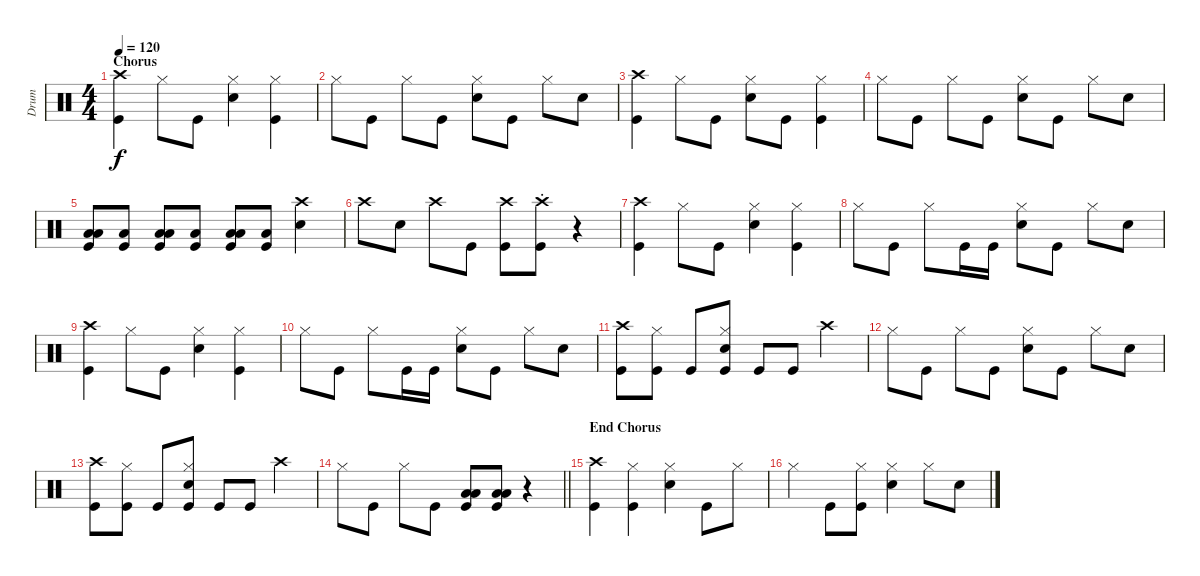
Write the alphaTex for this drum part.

\track ("Drum" "Drum") {instrument percussion}
\staff {score}
\articulation defaults
\ts (4 4)
\section ("" "Chorus")
\tempo 120
\clef neutral
\ks c
("Crash high (hit)" "Kick (hit)").4{dy f} "Hi-Hat (closed)".8 "Kick (hit)".8 ("Hi-Hat (closed)" "Snare (hit) 2").4 ("Hi-Hat (closed)" "Kick (hit)").4 |
"Hi-Hat (closed)".8 "Kick (hit)".8 "Hi-Hat (closed)".8 "Kick (hit)".8 ("Hi-Hat (closed)" "Snare (hit) 2").8 "Kick (hit)".8 "Hi-Hat (closed)".8 "Snare (hit) 2".8 |
("Crash high (hit)" "Kick (hit)").4 "Hi-Hat (closed)".8 "Kick (hit)".8 ("Hi-Hat (closed)" "Snare (hit) 2").8 "Kick (hit)".8 ("Hi-Hat (closed)" "Kick (hit)").4 |
"Hi-Hat (closed)".8 "Kick (hit)".8 "Hi-Hat (closed)".8 "Kick (hit)".8 ("Hi-Hat (closed)" "Snare (hit) 2").8 "Kick (hit)".8 "Hi-Hat (closed)".8 "Snare (hit) 2".8 |
("Low Tom (hit)" "Low Floor Tom (hit)" "Kick (hit)").8 ("Low Tom (hit)" "Kick (hit)").8 ("Low Tom (hit)" "Low Floor Tom (hit)" "Kick (hit)").8 ("Low Tom (hit)" "Kick (hit)").8 ("Low Tom (hit)" "Low Floor Tom (hit)" "Kick (hit)").8 ("Low Tom (hit)" "Kick (hit)").8 ("Crash high (hit)" "Snare (hit) 2").4 |
"Crash high (hit)".8 "Snare (hit) 2".8 "Crash high (hit)".8 "Kick (hit)".8 ("Crash high (hit)" "Kick (hit)").8 ("Crash high (hit)"{st} "Kick (hit)").8 r.4 |
("Crash high (hit)" "Kick (hit)").4 "Hi-Hat (closed)".8 "Kick (hit)".8 ("Hi-Hat (closed)" "Snare (hit) 2").4 ("Hi-Hat (closed)" "Kick (hit)").4 |
"Hi-Hat (closed)".8 "Kick (hit)".8 "Hi-Hat (closed)".8 "Kick (hit)".16 "Kick (hit)".16 ("Hi-Hat (closed)" "Snare (hit) 2").8 "Kick (hit)".8 "Hi-Hat (closed)".8 "Snare (hit) 2".8 |
("Crash high (hit)" "Kick (hit)").4 "Hi-Hat (closed)".8 "Kick (hit)".8 ("Hi-Hat (closed)" "Snare (hit) 2").4 ("Hi-Hat (closed)" "Kick (hit)").4 |
"Hi-Hat (closed)".8 "Kick (hit)".8 "Hi-Hat (closed)".8 "Kick (hit)".16 "Kick (hit)".16 ("Hi-Hat (closed)" "Snare (hit) 2").8 "Kick (hit)".8 "Hi-Hat (closed)".8 "Snare (hit) 2".8 |
("Crash high (hit)" "Kick (hit)").8 ("Hi-Hat (closed)" "Kick (hit)").8 "Kick (hit)".8 ("Hi-Hat (closed)" "Snare (hit) 2" "Kick (hit)").8 "Kick (hit)".8 "Kick (hit)".8 "Crash high (hit)".4 |
"Hi-Hat (closed)".8 "Kick (hit)".8 "Hi-Hat (closed)".8 "Kick (hit)".8 ("Hi-Hat (closed)" "Snare (hit) 2").8 "Kick (hit)".8 "Hi-Hat (closed)".8 "Snare (hit) 2".8 |
("Crash high (hit)" "Kick (hit)").8 ("Hi-Hat (closed)" "Kick (hit)").8 "Kick (hit)".8 ("Hi-Hat (closed)" "Snare (hit) 2" "Kick (hit)").8 "Kick (hit)".8 "Kick (hit)".8 "Crash high (hit)".4 |
\barLineRight lightlight "Hi-Hat (closed)".8 "Kick (hit)".8 "Hi-Hat (closed)".8 "Kick (hit)".8
("Low Tom (hit)" "Low Floor Tom (hit)" "Kick (hit)").8 ("Low Tom (hit)" "Low Floor Tom (hit)" "Kick (hit)").8 r.4 |
\section ("" "End Chorus")
("Crash high (hit)" "Kick (hit)").4 ("Hi-Hat (closed)" "Kick (hit)").4 ("Hi-Hat (closed)" "Snare (hit) 2").4 "Kick (hit)".8 "Hi-Hat (closed)".8 |
"Hi-Hat (closed)".4 "Kick (hit)".8 ("Hi-Hat (closed)" "Kick (hit)").8 ("Hi-Hat (closed)" "Snare (hit) 2").4 "Hi-Hat (closed)".8 "Snare (hit) 2".8
